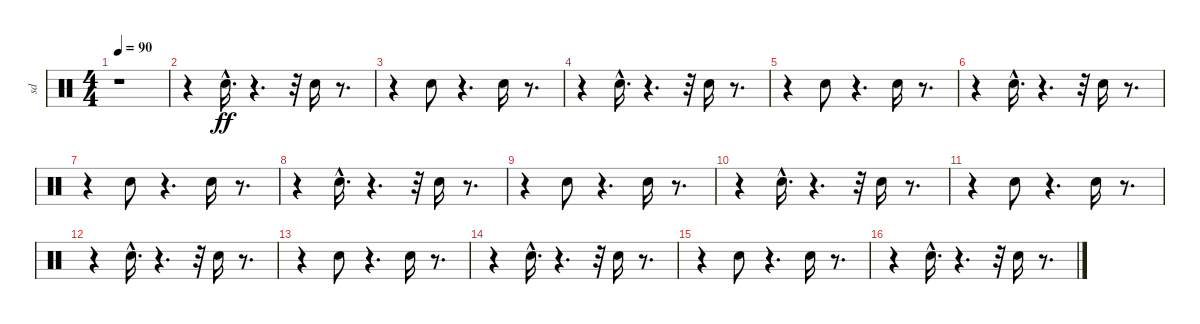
\track ("sd" "sd") {instrument percussion}
\staff {score}
\articulation defaults
\ts (4 4)
\tempo 90
\clef neutral
\ks c
r.1{dy ff} |
r.4 "Snare (hit) 2"{hac}.16{d} r.4{d} r.32 "Snare (hit) 2".16 r.8{d} |
r.4 "Snare (hit) 2".8 r.4{d} "Snare (hit) 2".16 r.8{d} |
r.4 "Snare (hit) 2"{hac}.16{d} r.4{d} r.32 "Snare (hit) 2".16 r.8{d} |
r.4 "Snare (hit) 2".8 r.4{d} "Snare (hit) 2".16 r.8{d} |
r.4 "Snare (hit) 2"{hac}.16{d} r.4{d} r.32 "Snare (hit) 2".16 r.8{d} |
r.4 "Snare (hit) 2".8 r.4{d} "Snare (hit) 2".16 r.8{d} |
r.4 "Snare (hit) 2"{hac}.16{d} r.4{d} r.32 "Snare (hit) 2".16 r.8{d} |
r.4 "Snare (hit) 2".8 r.4{d} "Snare (hit) 2".16 r.8{d} |
r.4 "Snare (hit) 2"{hac}.16{d} r.4{d} r.32 "Snare (hit) 2".16 r.8{d} |
r.4 "Snare (hit) 2".8 r.4{d} "Snare (hit) 2".16 r.8{d} |
r.4 "Snare (hit) 2"{hac}.16{d} r.4{d} r.32 "Snare (hit) 2".16 r.8{d} |
r.4 "Snare (hit) 2".8 r.4{d} "Snare (hit) 2".16 r.8{d} |
r.4 "Snare (hit) 2"{hac}.16{d} r.4{d} r.32 "Snare (hit) 2".16 r.8{d} |
r.4 "Snare (hit) 2".8 r.4{d} "Snare (hit) 2".16 r.8{d} |
r.4 "Snare (hit) 2"{hac}.16{d} r.4{d} r.32 "Snare (hit) 2".16 r.8{d}
